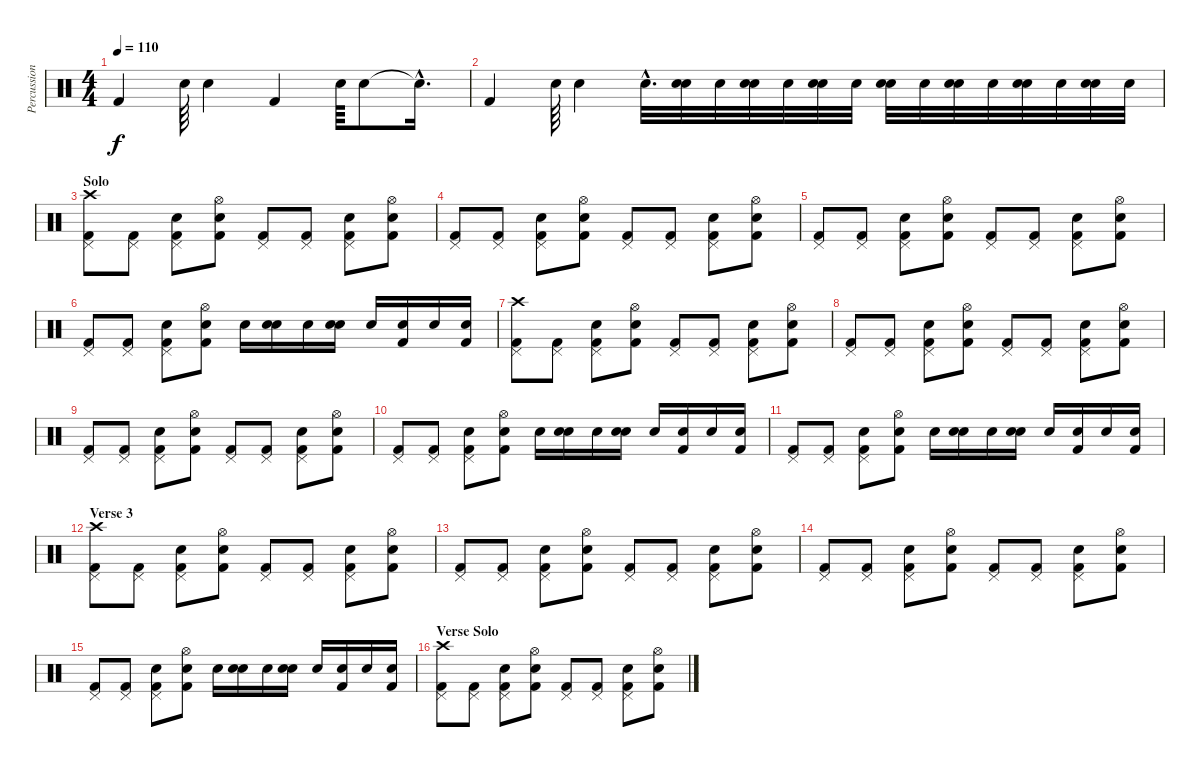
\track ("Percussion" "Percussion") {instrument percussion}
\staff {score}
\articulation defaults
\ts (4 4)
\tempo 110
\clef neutral
\ks c "Kick (hit) 2".4{dy f} "Snare (hit) 2".64 "Snare (hit) 2".4 "Kick (hit) 2".4 "Snare (hit) 2".64 "Snare (hit) 2".8 "Snare (hit)"{hac t}.16{d}
|
"Kick (hit) 2".4 "Snare (hit) 2".64 "Snare (hit) 2".4 "Snare (hit) 2"{hac}.32{d} ("Snare (hit) 2" "Snare (hit) 2").32 "Snare (hit) 2".32 ("Snare (hit) 2" "Snare (hit) 2").32 "Snare (hit) 2".32 ("Snare (hit) 2" "Snare (hit) 2").32 "Snare (hit) 2".32 ("Snare (hit) 2" "Snare (hit) 2").32 "Snare (hit) 2".32 ("Snare (hit) 2" "Snare (hit) 2").32 "Snare (hit) 2".32 ("Snare (hit) 2" "Snare (hit) 2").32 "Snare (hit) 2".32 ("Snare (hit) 2" "Snare (hit) 2").32 "Snare (hit) 2".32 |
\section ("" "Solo")
("Pedal Hi-Hat (hit)" "Crash high (hit)" "Kick (hit) 2").8 ("Pedal Hi-Hat (hit)" "Kick (hit) 2").8 ("Pedal Hi-Hat (hit)" "Snare (hit) 2" "Kick (hit) 2").8 ("Hi-Hat (open)" "Snare (hit) 2" "Kick (hit) 2").8 ("Pedal Hi-Hat (hit)" "Kick (hit) 2").8 ("Pedal Hi-Hat (hit)" "Kick (hit) 2").8 ("Pedal Hi-Hat (hit)" "Snare (hit) 2" "Kick (hit) 2").8 ("Hi-Hat (open)" "Snare (hit) 2" "Kick (hit) 2").8 |
("Pedal Hi-Hat (hit)" "Kick (hit) 2").8 ("Pedal Hi-Hat (hit)" "Kick (hit) 2").8 ("Pedal Hi-Hat (hit)" "Snare (hit) 2" "Kick (hit) 2").8 ("Hi-Hat (open)" "Snare (hit) 2" "Kick (hit) 2").8 ("Pedal Hi-Hat (hit)" "Kick (hit) 2").8 ("Pedal Hi-Hat (hit)" "Kick (hit) 2").8 ("Pedal Hi-Hat (hit)" "Snare (hit) 2" "Kick (hit) 2").8 ("Hi-Hat (open)" "Snare (hit) 2" "Kick (hit) 2").8 |
("Pedal Hi-Hat (hit)" "Kick (hit) 2").8 ("Pedal Hi-Hat (hit)" "Kick (hit) 2").8 ("Pedal Hi-Hat (hit)" "Snare (hit) 2" "Kick (hit) 2").8 ("Hi-Hat (open)" "Snare (hit) 2" "Kick (hit) 2").8 ("Pedal Hi-Hat (hit)" "Kick (hit) 2").8 ("Pedal Hi-Hat (hit)" "Kick (hit) 2").8 ("Pedal Hi-Hat (hit)" "Snare (hit) 2" "Kick (hit) 2").8 ("Hi-Hat (open)" "Snare (hit) 2" "Kick (hit) 2").8 |
("Pedal Hi-Hat (hit)" "Kick (hit) 2").8 ("Pedal Hi-Hat (hit)" "Kick (hit) 2").8 ("Pedal Hi-Hat (hit)" "Snare (hit) 2" "Kick (hit) 2").8 ("Hi-Hat (open)" "Snare (hit) 2" "Kick (hit) 2").8 "Snare (hit) 2".16 ("Electric Snare (hit)" "Snare (hit) 2").16 "Snare (hit) 2".16 ("Electric Snare (hit)" "Snare (hit) 2").16 "Snare (hit) 2".16 ("Kick (hit) 2" "Snare (hit) 2").16 "Snare (hit) 2".16 ("Kick (hit) 2" "Snare (hit) 2").16 |
("Pedal Hi-Hat (hit)" "Crash high (hit)" "Kick (hit) 2").8 ("Pedal Hi-Hat (hit)" "Kick (hit) 2").8 ("Pedal Hi-Hat (hit)" "Snare (hit) 2" "Kick (hit) 2").8 ("Hi-Hat (open)" "Snare (hit) 2" "Kick (hit) 2").8 ("Pedal Hi-Hat (hit)" "Kick (hit) 2").8 ("Pedal Hi-Hat (hit)" "Kick (hit) 2").8 ("Pedal Hi-Hat (hit)" "Snare (hit) 2" "Kick (hit) 2").8 ("Hi-Hat (open)" "Snare (hit) 2" "Kick (hit) 2").8 |
("Pedal Hi-Hat (hit)" "Kick (hit) 2").8 ("Pedal Hi-Hat (hit)" "Kick (hit) 2").8 ("Pedal Hi-Hat (hit)" "Snare (hit) 2" "Kick (hit) 2").8 ("Hi-Hat (open)" "Snare (hit) 2" "Kick (hit) 2").8 ("Pedal Hi-Hat (hit)" "Kick (hit) 2").8 ("Pedal Hi-Hat (hit)" "Kick (hit) 2").8 ("Pedal Hi-Hat (hit)" "Snare (hit) 2" "Kick (hit) 2").8 ("Hi-Hat (open)" "Snare (hit) 2" "Kick (hit) 2").8 |
("Pedal Hi-Hat (hit)" "Kick (hit) 2").8 ("Pedal Hi-Hat (hit)" "Kick (hit) 2").8 ("Pedal Hi-Hat (hit)" "Snare (hit) 2" "Kick (hit) 2").8 ("Hi-Hat (open)" "Snare (hit) 2" "Kick (hit) 2").8 ("Pedal Hi-Hat (hit)" "Kick (hit) 2").8 ("Pedal Hi-Hat (hit)" "Kick (hit) 2").8 ("Pedal Hi-Hat (hit)" "Snare (hit) 2" "Kick (hit) 2").8 ("Hi-Hat (open)" "Snare (hit) 2" "Kick (hit) 2").8 |
("Pedal Hi-Hat (hit)" "Kick (hit) 2").8 ("Pedal Hi-Hat (hit)" "Kick (hit) 2").8 ("Pedal Hi-Hat (hit)" "Snare (hit) 2" "Kick (hit) 2").8 ("Hi-Hat (open)" "Snare (hit) 2" "Kick (hit) 2").8 "Snare (hit) 2".16 ("Electric Snare (hit)" "Snare (hit) 2").16 "Snare (hit) 2".16 ("Electric Snare (hit)" "Snare (hit) 2").16 "Snare (hit) 2".16 ("Kick (hit) 2" "Snare (hit) 2").16 "Snare (hit) 2".16 ("Kick (hit) 2" "Snare (hit) 2").16 |
("Pedal Hi-Hat (hit)" "Kick (hit) 2").8 ("Pedal Hi-Hat (hit)" "Kick (hit) 2").8 ("Pedal Hi-Hat (hit)" "Snare (hit) 2" "Kick (hit) 2").8 ("Hi-Hat (open)" "Snare (hit) 2" "Kick (hit) 2").8 "Snare (hit) 2".16 ("Electric Snare (hit)" "Snare (hit) 2").16 "Snare (hit) 2".16 ("Electric Snare (hit)" "Snare (hit) 2").16 "Snare (hit) 2".16 ("Kick (hit) 2" "Snare (hit) 2").16 "Snare (hit) 2".16 ("Kick (hit) 2" "Snare (hit) 2").16 |
\section ("" "Verse 3")
("Pedal Hi-Hat (hit)" "Crash high (hit)" "Kick (hit) 2").8 ("Pedal Hi-Hat (hit)" "Kick (hit) 2").8 ("Pedal Hi-Hat (hit)" "Snare (hit) 2" "Kick (hit) 2").8 ("Hi-Hat (open)" "Snare (hit) 2" "Kick (hit) 2").8 ("Pedal Hi-Hat (hit)" "Kick (hit) 2").8 ("Pedal Hi-Hat (hit)" "Kick (hit) 2").8 ("Pedal Hi-Hat (hit)" "Snare (hit) 2" "Kick (hit) 2").8 ("Hi-Hat (open)" "Snare (hit) 2" "Kick (hit) 2").8 |
("Pedal Hi-Hat (hit)" "Kick (hit) 2").8 ("Pedal Hi-Hat (hit)" "Kick (hit) 2").8 ("Pedal Hi-Hat (hit)" "Snare (hit) 2" "Kick (hit) 2").8 ("Hi-Hat (open)" "Snare (hit) 2" "Kick (hit) 2").8 ("Pedal Hi-Hat (hit)" "Kick (hit) 2").8 ("Pedal Hi-Hat (hit)" "Kick (hit) 2").8 ("Pedal Hi-Hat (hit)" "Snare (hit) 2" "Kick (hit) 2").8 ("Hi-Hat (open)" "Snare (hit) 2" "Kick (hit) 2").8 |
("Pedal Hi-Hat (hit)" "Kick (hit) 2").8 ("Pedal Hi-Hat (hit)" "Kick (hit) 2").8 ("Pedal Hi-Hat (hit)" "Snare (hit) 2" "Kick (hit) 2").8 ("Hi-Hat (open)" "Snare (hit) 2" "Kick (hit) 2").8 ("Pedal Hi-Hat (hit)" "Kick (hit) 2").8 ("Pedal Hi-Hat (hit)" "Kick (hit) 2").8 ("Pedal Hi-Hat (hit)" "Snare (hit) 2" "Kick (hit) 2").8 ("Hi-Hat (open)" "Snare (hit) 2" "Kick (hit) 2").8 |
("Pedal Hi-Hat (hit)" "Kick (hit) 2").8 ("Pedal Hi-Hat (hit)" "Kick (hit) 2").8 ("Pedal Hi-Hat (hit)" "Snare (hit) 2" "Kick (hit) 2").8 ("Hi-Hat (open)" "Snare (hit) 2" "Kick (hit) 2").8 "Snare (hit) 2".16 ("Electric Snare (hit)" "Snare (hit) 2").16 "Snare (hit) 2".16 ("Electric Snare (hit)" "Snare (hit) 2").16 "Snare (hit) 2".16 ("Kick (hit) 2" "Snare (hit) 2").16 "Snare (hit) 2".16 ("Kick (hit) 2" "Snare (hit) 2").16 |
\section ("" "Verse Solo")
("Pedal Hi-Hat (hit)" "Crash high (hit)" "Kick (hit) 2").8 ("Pedal Hi-Hat (hit)" "Kick (hit) 2").8 ("Pedal Hi-Hat (hit)" "Snare (hit) 2" "Kick (hit) 2").8 ("Hi-Hat (open)" "Snare (hit) 2" "Kick (hit) 2").8 ("Pedal Hi-Hat (hit)" "Kick (hit) 2").8 ("Pedal Hi-Hat (hit)" "Kick (hit) 2").8 ("Pedal Hi-Hat (hit)" "Snare (hit) 2" "Kick (hit) 2").8 ("Hi-Hat (open)" "Snare (hit) 2" "Kick (hit) 2").8
